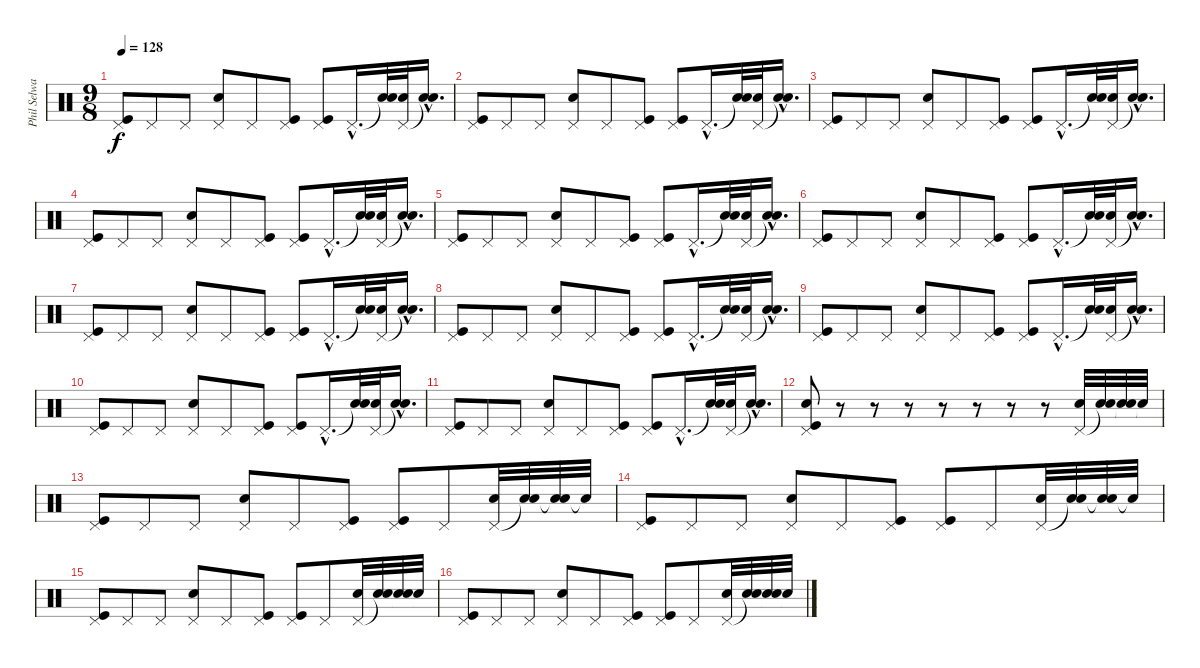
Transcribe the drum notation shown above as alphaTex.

\track ("Phil Selway - Drums" "Phil Selwa") {instrument percussion}
\staff {score}
\articulation defaults
\ts (9 8)
\tempo 128
\clef neutral
\ks c
("Pedal Hi-Hat (hit)" "Kick (hit)").8{dy f} "Pedal Hi-Hat (hit)".8 "Pedal Hi-Hat (hit)".8 ("Pedal Hi-Hat (hit)" "Snare (hit) 2").8 "Pedal Hi-Hat (hit)".8 ("Pedal Hi-Hat (hit)" "Kick (hit)").8 ("Pedal Hi-Hat (hit)" "Kick (hit)").8 "Pedal Hi-Hat (hit)"{hac}.16{d} ("Snare (hit)"{t} "Snare (hit) 2").32 ("Pedal Hi-Hat (hit)" "Snare (hit) 2").32 ("Snare (hit)"{hac t} "Snare (hit) 2"{hac}).16{d} |
("Pedal Hi-Hat (hit)" "Kick (hit)").8 "Pedal Hi-Hat (hit)".8 "Pedal Hi-Hat (hit)".8 ("Pedal Hi-Hat (hit)" "Snare (hit) 2").8 "Pedal Hi-Hat (hit)".8 ("Pedal Hi-Hat (hit)" "Kick (hit)").8 ("Pedal Hi-Hat (hit)" "Kick (hit)").8 "Pedal Hi-Hat (hit)"{hac}.16{d} ("Snare (hit)"{t} "Snare (hit) 2").32 ("Pedal Hi-Hat (hit)" "Snare (hit) 2").32 ("Snare (hit)"{hac t} "Snare (hit) 2"{hac}).16{d} |
("Pedal Hi-Hat (hit)" "Kick (hit)").8 "Pedal Hi-Hat (hit)".8 "Pedal Hi-Hat (hit)".8 ("Pedal Hi-Hat (hit)" "Snare (hit) 2").8 "Pedal Hi-Hat (hit)".8 ("Pedal Hi-Hat (hit)" "Kick (hit)").8 ("Pedal Hi-Hat (hit)" "Kick (hit)").8 "Pedal Hi-Hat (hit)"{hac}.16{d} ("Snare (hit)"{t} "Snare (hit) 2").32 ("Pedal Hi-Hat (hit)" "Snare (hit) 2").32 ("Snare (hit)"{hac t} "Snare (hit) 2"{hac}).16{d} |
("Pedal Hi-Hat (hit)" "Kick (hit)").8 "Pedal Hi-Hat (hit)".8 "Pedal Hi-Hat (hit)".8 ("Pedal Hi-Hat (hit)" "Snare (hit) 2").8 "Pedal Hi-Hat (hit)".8 ("Pedal Hi-Hat (hit)" "Kick (hit)").8 ("Pedal Hi-Hat (hit)" "Kick (hit)").8 "Pedal Hi-Hat (hit)"{hac}.16{d} ("Snare (hit)"{t} "Snare (hit) 2").32 ("Pedal Hi-Hat (hit)" "Snare (hit) 2").32 ("Snare (hit)"{hac t} "Snare (hit) 2"{hac}).16{d} |
("Pedal Hi-Hat (hit)" "Kick (hit)").8 "Pedal Hi-Hat (hit)".8 "Pedal Hi-Hat (hit)".8 ("Pedal Hi-Hat (hit)" "Snare (hit) 2").8 "Pedal Hi-Hat (hit)".8 ("Pedal Hi-Hat (hit)" "Kick (hit)").8 ("Pedal Hi-Hat (hit)" "Kick (hit)").8 "Pedal Hi-Hat (hit)"{hac}.16{d} ("Snare (hit)"{t} "Snare (hit) 2").32 ("Pedal Hi-Hat (hit)" "Snare (hit) 2").32 ("Snare (hit)"{hac t} "Snare (hit) 2"{hac}).16{d} |
("Pedal Hi-Hat (hit)" "Kick (hit)").8 "Pedal Hi-Hat (hit)".8 "Pedal Hi-Hat (hit)".8 ("Pedal Hi-Hat (hit)" "Snare (hit) 2").8 "Pedal Hi-Hat (hit)".8 ("Pedal Hi-Hat (hit)" "Kick (hit)").8 ("Pedal Hi-Hat (hit)" "Kick (hit)").8 "Pedal Hi-Hat (hit)"{hac}.16{d} ("Snare (hit)"{t} "Snare (hit) 2").32 ("Pedal Hi-Hat (hit)" "Snare (hit) 2").32 ("Snare (hit)"{hac t} "Snare (hit) 2"{hac}).16{d} |
("Pedal Hi-Hat (hit)" "Kick (hit)").8 "Pedal Hi-Hat (hit)".8 "Pedal Hi-Hat (hit)".8 ("Pedal Hi-Hat (hit)" "Snare (hit) 2").8 "Pedal Hi-Hat (hit)".8 ("Pedal Hi-Hat (hit)" "Kick (hit)").8 ("Pedal Hi-Hat (hit)" "Kick (hit)").8 "Pedal Hi-Hat (hit)"{hac}.16{d} ("Snare (hit)"{t} "Snare (hit) 2").32 ("Pedal Hi-Hat (hit)" "Snare (hit) 2").32 ("Snare (hit)"{hac t} "Snare (hit) 2"{hac}).16{d} |
("Pedal Hi-Hat (hit)" "Kick (hit)").8 "Pedal Hi-Hat (hit)".8 "Pedal Hi-Hat (hit)".8 ("Pedal Hi-Hat (hit)" "Snare (hit) 2").8 "Pedal Hi-Hat (hit)".8 ("Pedal Hi-Hat (hit)" "Kick (hit)").8 ("Pedal Hi-Hat (hit)" "Kick (hit)").8 "Pedal Hi-Hat (hit)"{hac}.16{d} ("Snare (hit)"{t} "Snare (hit) 2").32 ("Pedal Hi-Hat (hit)" "Snare (hit) 2").32 ("Snare (hit)"{hac t} "Snare (hit) 2"{hac}).16{d} |
("Pedal Hi-Hat (hit)" "Kick (hit)").8 "Pedal Hi-Hat (hit)".8 "Pedal Hi-Hat (hit)".8 ("Pedal Hi-Hat (hit)" "Snare (hit) 2").8 "Pedal Hi-Hat (hit)".8 ("Pedal Hi-Hat (hit)" "Kick (hit)").8 ("Pedal Hi-Hat (hit)" "Kick (hit)").8 "Pedal Hi-Hat (hit)"{hac}.16{d} ("Snare (hit)"{t} "Snare (hit) 2").32 ("Pedal Hi-Hat (hit)" "Snare (hit) 2").32 ("Snare (hit)"{hac t} "Snare (hit) 2"{hac}).16{d} |
("Pedal Hi-Hat (hit)" "Kick (hit)").8 "Pedal Hi-Hat (hit)".8 "Pedal Hi-Hat (hit)".8 ("Pedal Hi-Hat (hit)" "Snare (hit) 2").8 "Pedal Hi-Hat (hit)".8 ("Pedal Hi-Hat (hit)" "Kick (hit)").8 ("Pedal Hi-Hat (hit)" "Kick (hit)").8 "Pedal Hi-Hat (hit)"{hac}.16{d} ("Snare (hit)"{t} "Snare (hit) 2").32 ("Pedal Hi-Hat (hit)" "Snare (hit) 2").32 ("Snare (hit)"{hac t} "Snare (hit) 2"{hac}).16{d} |
("Pedal Hi-Hat (hit)" "Kick (hit)").8 "Pedal Hi-Hat (hit)".8 "Pedal Hi-Hat (hit)".8 ("Pedal Hi-Hat (hit)" "Snare (hit) 2").8 "Pedal Hi-Hat (hit)".8 ("Pedal Hi-Hat (hit)" "Kick (hit)").8 ("Pedal Hi-Hat (hit)" "Kick (hit)").8 "Pedal Hi-Hat (hit)"{hac}.16{d} ("Snare (hit)"{t} "Snare (hit) 2").32 ("Pedal Hi-Hat (hit)" "Snare (hit) 2").32 ("Snare (hit)"{hac t} "Snare (hit) 2"{hac}).16{d} |
("Pedal Hi-Hat (hit)" "Snare (hit) 2" "Kick (hit)").8 r.8 r.8 r.8 r.8 r.8 r.8 r.8 ("Pedal Hi-Hat (hit)" "Snare (hit) 2").32 ("Snare (hit)"{t} "Snare (hit) 2").32 ("Snare (hit)"{t} "Snare (hit) 2").32 "Snare (hit)"{t}.32 |
("Pedal Hi-Hat (hit)" "Kick (hit)").8 "Pedal Hi-Hat (hit)".8 "Pedal Hi-Hat (hit)".8 ("Pedal Hi-Hat (hit)" "Snare (hit) 2").8 "Pedal Hi-Hat (hit)".8 ("Pedal Hi-Hat (hit)" "Kick (hit)").8 ("Pedal Hi-Hat (hit)" "Kick (hit)").8 "Pedal Hi-Hat (hit)".8 ("Pedal Hi-Hat (hit)" "Snare (hit) 2").32 ("Snare (hit)"{t} "Snare (hit) 2").32 ("Snare (hit)"{t} "Snare (hit) 2").32 "Snare (hit)"{t}.32 |
("Pedal Hi-Hat (hit)" "Kick (hit)").8 "Pedal Hi-Hat (hit)".8 "Pedal Hi-Hat (hit)".8 ("Pedal Hi-Hat (hit)" "Snare (hit) 2").8 "Pedal Hi-Hat (hit)".8 ("Pedal Hi-Hat (hit)" "Kick (hit)").8 ("Pedal Hi-Hat (hit)" "Kick (hit)").8 "Pedal Hi-Hat (hit)".8 ("Pedal Hi-Hat (hit)" "Snare (hit) 2").32 ("Snare (hit)"{t} "Snare (hit) 2").32 ("Snare (hit)"{t} "Snare (hit) 2").32 "Snare (hit)"{t}.32 |
("Pedal Hi-Hat (hit)" "Kick (hit)").8 "Pedal Hi-Hat (hit)".8 "Pedal Hi-Hat (hit)".8 ("Pedal Hi-Hat (hit)" "Snare (hit) 2").8 "Pedal Hi-Hat (hit)".8 ("Pedal Hi-Hat (hit)" "Kick (hit)").8 ("Pedal Hi-Hat (hit)" "Kick (hit)").8 "Pedal Hi-Hat (hit)".8 ("Pedal Hi-Hat (hit)" "Snare (hit) 2").32 ("Snare (hit)"{t} "Snare (hit) 2").32 ("Snare (hit)"{t} "Snare (hit) 2").32 "Snare (hit)"{t}.32 |
("Pedal Hi-Hat (hit)" "Kick (hit)").8 "Pedal Hi-Hat (hit)".8 "Pedal Hi-Hat (hit)".8 ("Pedal Hi-Hat (hit)" "Snare (hit) 2").8 "Pedal Hi-Hat (hit)".8 ("Pedal Hi-Hat (hit)" "Kick (hit)").8 ("Pedal Hi-Hat (hit)" "Kick (hit)").8 "Pedal Hi-Hat (hit)".8 ("Pedal Hi-Hat (hit)" "Snare (hit) 2").32 ("Snare (hit)"{t} "Snare (hit) 2").32 ("Snare (hit)"{t} "Snare (hit) 2").32 "Snare (hit)"{t}.32
